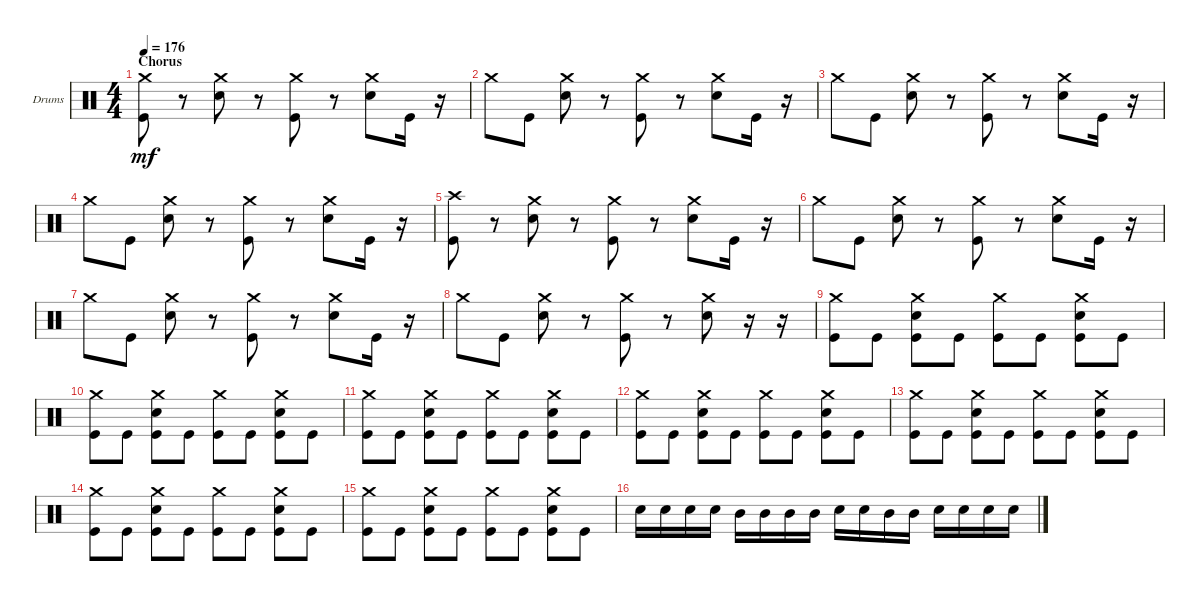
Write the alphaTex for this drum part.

\bracketExtendMode groupsimilarinstruments
\firstSystemTrackNameOrientation horizontal
\otherSystemsTrackNameOrientation horizontal
\track ("Drums" "Drums") {instrument percussion}
\staff {score}
\articulation defaults
\ts (4 4)
\section ("" "Chorus")
\tempo 176
\clef neutral
\ks c
("Crash medium (hit)" "Kick (hit)").8{dy mf} r.8 ("Crash medium (hit)" "Snare (hit) 2").8 r.8 ("Crash medium (hit)" "Kick (hit)").8 r.8 ("Crash medium (hit)" "Snare (hit) 2").8 "Kick (hit)".16 r.16 |
"Crash medium (hit)".8 "Kick (hit)".8 ("Crash medium (hit)" "Snare (hit) 2").8 r.8 ("Crash medium (hit)" "Kick (hit)").8 r.8 ("Crash medium (hit)" "Snare (hit) 2").8 "Kick (hit)".16 r.16 |
"Crash medium (hit)".8 "Kick (hit)".8 ("Crash medium (hit)" "Snare (hit) 2").8 r.8 ("Crash medium (hit)" "Kick (hit)").8 r.8 ("Crash medium (hit)" "Snare (hit) 2").8 "Kick (hit)".16 r.16 |
"Crash medium (hit)".8 "Kick (hit)".8 ("Crash medium (hit)" "Snare (hit) 2").8 r.8 ("Crash medium (hit)" "Kick (hit)").8 r.8 ("Crash medium (hit)" "Snare (hit) 2").8 "Kick (hit)".16 r.16 |
("Kick (hit)" "Crash high (hit)").8 r.8 ("Crash medium (hit)" "Snare (hit) 2").8 r.8 ("Crash medium (hit)" "Kick (hit)").8 r.8 ("Crash medium (hit)" "Snare (hit) 2").8 "Kick (hit)".16 r.16 |
"Crash medium (hit)".8 "Kick (hit)".8 ("Crash medium (hit)" "Snare (hit) 2").8 r.8 ("Crash medium (hit)" "Kick (hit)").8 r.8 ("Crash medium (hit)" "Snare (hit) 2").8 "Kick (hit)".16 r.16 |
"Crash medium (hit)".8 "Kick (hit)".8 ("Crash medium (hit)" "Snare (hit) 2").8 r.8 ("Crash medium (hit)" "Kick (hit)").8 r.8 ("Crash medium (hit)" "Snare (hit) 2").8 "Kick (hit)".16 r.16 |
"Crash medium (hit)".8 "Kick (hit)".8 ("Crash medium (hit)" "Snare (hit) 2").8 r.8 ("Crash medium (hit)" "Kick (hit)").8 r.8 ("Crash medium (hit)" "Snare (hit) 2").8 r.16 r.16 |
("Crash medium (hit)" "Kick (hit)").8 "Kick (hit)".8 ("Crash medium (hit)" "Snare (hit) 2" "Kick (hit)").8 "Kick (hit)".8 ("Crash medium (hit)" "Kick (hit)").8 "Kick (hit)".8 ("Crash medium (hit)" "Snare (hit) 2" "Kick (hit)").8 "Kick (hit)".8 |
("Crash medium (hit)" "Kick (hit)").8 "Kick (hit)".8 ("Crash medium (hit)" "Snare (hit) 2" "Kick (hit)").8 "Kick (hit)".8 ("Crash medium (hit)" "Kick (hit)").8 "Kick (hit)".8 ("Crash medium (hit)" "Snare (hit) 2" "Kick (hit)").8 "Kick (hit)".8 |
("Crash medium (hit)" "Kick (hit)").8 "Kick (hit)".8 ("Crash medium (hit)" "Snare (hit) 2" "Kick (hit)").8 "Kick (hit)".8 ("Crash medium (hit)" "Kick (hit)").8 "Kick (hit)".8 ("Crash medium (hit)" "Snare (hit) 2" "Kick (hit)").8 "Kick (hit)".8 |
("Crash medium (hit)" "Kick (hit)").8 "Kick (hit)".8 ("Crash medium (hit)" "Snare (hit) 2" "Kick (hit)").8 "Kick (hit)".8 ("Crash medium (hit)" "Kick (hit)").8 "Kick (hit)".8 ("Crash medium (hit)" "Snare (hit) 2" "Kick (hit)").8 "Kick (hit)".8 |
("Crash medium (hit)" "Kick (hit)").8 "Kick (hit)".8 ("Crash medium (hit)" "Snare (hit) 2" "Kick (hit)").8 "Kick (hit)".8 ("Crash medium (hit)" "Kick (hit)").8 "Kick (hit)".8 ("Crash medium (hit)" "Snare (hit) 2" "Kick (hit)").8 "Kick (hit)".8 |
("Crash medium (hit)" "Kick (hit)").8 "Kick (hit)".8 ("Crash medium (hit)" "Snare (hit) 2" "Kick (hit)").8 "Kick (hit)".8 ("Crash medium (hit)" "Kick (hit)").8 "Kick (hit)".8 ("Crash medium (hit)" "Snare (hit) 2" "Kick (hit)").8 "Kick (hit)".8 |
("Crash medium (hit)" "Kick (hit)").8 "Kick (hit)".8 ("Crash medium (hit)" "Snare (hit) 2" "Kick (hit)").8 "Kick (hit)".8 ("Crash medium (hit)" "Kick (hit)").8 "Kick (hit)".8 ("Crash medium (hit)" "Snare (hit) 2" "Kick (hit)").8 "Kick (hit)".8 |
"Snare (hit) 2".16 "Snare (hit) 2".16 "Snare (hit) 2".16 "Snare (hit) 2".16 "Mid Tom (hit)".16 "Mid Tom (hit)".16 "Mid Tom (hit)".16 "Mid Tom (hit)".16 "Snare (hit) 2".16 "Snare (hit) 2".16 "Mid Tom (hit)".16 "Mid Tom (hit)".16 "Snare (hit) 2".16 "Snare (hit) 2".16 "Snare (hit) 2".16 "Snare (hit) 2".16
